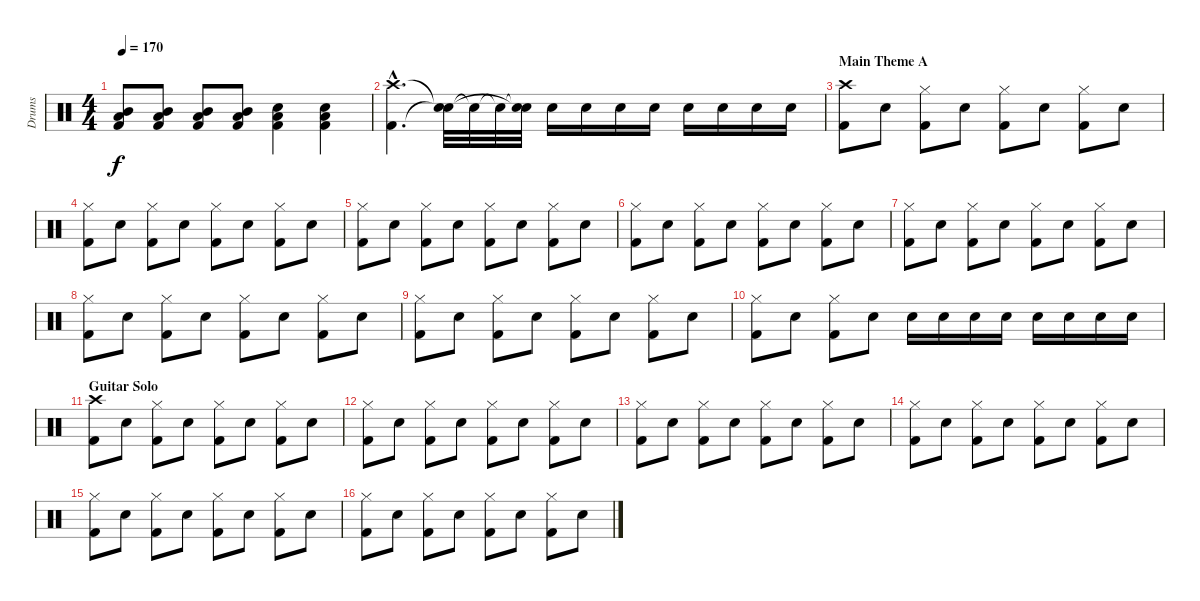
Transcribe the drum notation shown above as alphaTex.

\track ("Drums" "Drums") {instrument percussion}
\staff {score}
\articulation defaults
\ts (4 4)
\tempo 170
\clef neutral
\ks c
("Mid Tom (hit)" "Low Tom (hit)" "Kick (hit) 2").8{dy f} ("Mid Tom (hit)" "Low Tom (hit)" "Kick (hit) 2").8 ("Mid Tom (hit)" "Low Tom (hit)" "Kick (hit) 2").8 ("Mid Tom (hit)" "Low Tom (hit)" "Kick (hit) 2").8 ("Low Tom (hit)" "Electric Snare (hit)" "Kick (hit) 2").4 ("Low Tom (hit)" "Electric Snare (hit)" "Kick (hit) 2").4 |
("Crash high (hit)"{hac} "Kick (hit) 2"{hac}).4{d} ("Snare (hit)"{t} "Snare (hit)"{t}).32 "Snare (hit)"{t}.32 "Snare (hit)"{t}.32 ("Snare (hit)"{t} "Snare (hit)"{t}).32{volume 5} "Electric Snare (hit)".16{volume 10} "Electric Snare (hit)".16 "Electric Snare (hit)".16 "Electric Snare (hit)".16 "Electric Snare (hit)".16 "Electric Snare (hit)".16 "Electric Snare (hit)".16 "Electric Snare (hit)".16 |
\section ("" "Main Theme A")
("Crash high (hit)" "Kick (hit) 2").8{volume 11} "Electric Snare (hit)".8 ("Hi-Hat (closed)" "Kick (hit) 2").8 "Electric Snare (hit)".8 ("Hi-Hat (closed)" "Kick (hit) 2").8 "Electric Snare (hit)".8 ("Hi-Hat (closed)" "Kick (hit) 2").8 "Electric Snare (hit)".8 |
("Hi-Hat (closed)" "Kick (hit) 2").8 "Electric Snare (hit)".8 ("Hi-Hat (closed)" "Kick (hit) 2").8 "Electric Snare (hit)".8 ("Hi-Hat (closed)" "Kick (hit) 2").8 "Electric Snare (hit)".8 ("Hi-Hat (closed)" "Kick (hit) 2").8 "Electric Snare (hit)".8 |
("Hi-Hat (closed)" "Kick (hit) 2").8 "Electric Snare (hit)".8 ("Hi-Hat (closed)" "Kick (hit) 2").8 "Electric Snare (hit)".8 ("Hi-Hat (closed)" "Kick (hit) 2").8 "Electric Snare (hit)".8 ("Hi-Hat (closed)" "Kick (hit) 2").8 "Electric Snare (hit)".8 |
("Hi-Hat (closed)" "Kick (hit) 2").8 "Electric Snare (hit)".8 ("Hi-Hat (closed)" "Kick (hit) 2").8 "Electric Snare (hit)".8 ("Hi-Hat (closed)" "Kick (hit) 2").8 "Electric Snare (hit)".8 ("Hi-Hat (closed)" "Kick (hit) 2").8 "Electric Snare (hit)".8 |
("Hi-Hat (closed)" "Kick (hit) 2").8 "Electric Snare (hit)".8 ("Hi-Hat (closed)" "Kick (hit) 2").8 "Electric Snare (hit)".8 ("Hi-Hat (closed)" "Kick (hit) 2").8 "Electric Snare (hit)".8 ("Hi-Hat (closed)" "Kick (hit) 2").8 "Electric Snare (hit)".8 |
("Hi-Hat (closed)" "Kick (hit) 2").8 "Electric Snare (hit)".8 ("Hi-Hat (closed)" "Kick (hit) 2").8 "Electric Snare (hit)".8 ("Hi-Hat (closed)" "Kick (hit) 2").8 "Electric Snare (hit)".8 ("Hi-Hat (closed)" "Kick (hit) 2").8 "Electric Snare (hit)".8 |
("Hi-Hat (closed)" "Kick (hit) 2").8 "Electric Snare (hit)".8 ("Hi-Hat (closed)" "Kick (hit) 2").8 "Electric Snare (hit)".8 ("Hi-Hat (closed)" "Kick (hit) 2").8 "Electric Snare (hit)".8 ("Hi-Hat (closed)" "Kick (hit) 2").8 "Electric Snare (hit)".8 |
("Hi-Hat (closed)" "Kick (hit) 2").8 "Electric Snare (hit)".8 ("Hi-Hat (closed)" "Kick (hit) 2").8 "Electric Snare (hit)".8 "Electric Snare (hit)".16 "Electric Snare (hit)".16 "Electric Snare (hit)".16 "Electric Snare (hit)".16 "Electric Snare (hit)".16 "Electric Snare (hit)".16 "Electric Snare (hit)".16 "Electric Snare (hit)".16 |
\section ("" "Guitar Solo")
("Crash high (hit)" "Kick (hit) 2").8{volume 11} "Electric Snare (hit)".8 ("Hi-Hat (closed)" "Kick (hit) 2").8 "Electric Snare (hit)".8 ("Hi-Hat (closed)" "Kick (hit) 2").8 "Electric Snare (hit)".8 ("Hi-Hat (closed)" "Kick (hit) 2").8 "Electric Snare (hit)".8 |
("Hi-Hat (closed)" "Kick (hit) 2").8 "Electric Snare (hit)".8 ("Hi-Hat (closed)" "Kick (hit) 2").8 "Electric Snare (hit)".8 ("Hi-Hat (closed)" "Kick (hit) 2").8 "Electric Snare (hit)".8 ("Hi-Hat (closed)" "Kick (hit) 2").8 "Electric Snare (hit)".8 |
("Hi-Hat (closed)" "Kick (hit) 2").8 "Electric Snare (hit)".8 ("Hi-Hat (closed)" "Kick (hit) 2").8 "Electric Snare (hit)".8 ("Hi-Hat (closed)" "Kick (hit) 2").8 "Electric Snare (hit)".8 ("Hi-Hat (closed)" "Kick (hit) 2").8 "Electric Snare (hit)".8 |
("Hi-Hat (closed)" "Kick (hit) 2").8 "Electric Snare (hit)".8 ("Hi-Hat (closed)" "Kick (hit) 2").8 "Electric Snare (hit)".8 ("Hi-Hat (closed)" "Kick (hit) 2").8 "Electric Snare (hit)".8 ("Hi-Hat (closed)" "Kick (hit) 2").8 "Electric Snare (hit)".8 |
("Hi-Hat (closed)" "Kick (hit) 2").8 "Electric Snare (hit)".8 ("Hi-Hat (closed)" "Kick (hit) 2").8 "Electric Snare (hit)".8 ("Hi-Hat (closed)" "Kick (hit) 2").8 "Electric Snare (hit)".8 ("Hi-Hat (closed)" "Kick (hit) 2").8 "Electric Snare (hit)".8 |
("Hi-Hat (closed)" "Kick (hit) 2").8 "Electric Snare (hit)".8 ("Hi-Hat (closed)" "Kick (hit) 2").8 "Electric Snare (hit)".8 ("Hi-Hat (closed)" "Kick (hit) 2").8 "Electric Snare (hit)".8 ("Hi-Hat (closed)" "Kick (hit) 2").8 "Electric Snare (hit)".8
